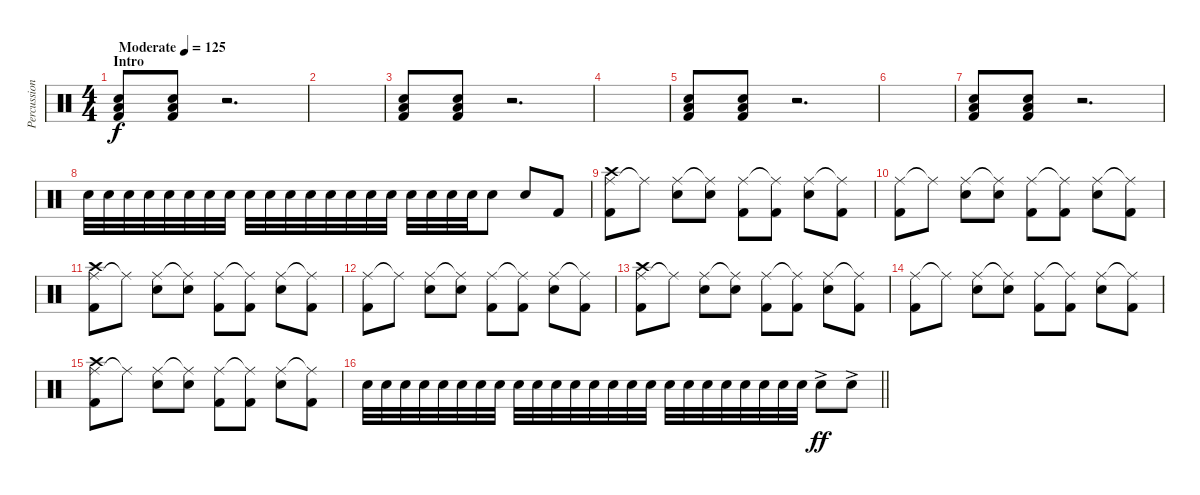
\track ("Percussion" "Percussion") {instrument percussion}
\staff {score}
\articulation defaults
\ts (4 4)
\section ("" "Intro")
\tempo (125 "Moderate")
\clef neutral
\ks c
("Snare (hit) 2" "Low Floor Tom (hit)" "Kick (hit) 2").8{dy f} ("Snare (hit) 2" "Low Floor Tom (hit)" "Kick (hit) 2").8 r.2{d} |
|
("Snare (hit) 2" "Low Floor Tom (hit)" "Kick (hit) 2").8 ("Snare (hit) 2" "Low Floor Tom (hit)" "Kick (hit) 2").8 r.2{d} |
|
("Snare (hit) 2" "Low Floor Tom (hit)" "Kick (hit) 2").8 ("Snare (hit) 2" "Low Floor Tom (hit)" "Kick (hit) 2").8 r.2{d} |
|
("Snare (hit) 2" "Low Floor Tom (hit)" "Kick (hit) 2").8 ("Snare (hit) 2" "Low Floor Tom (hit)" "Kick (hit) 2").8 r.2{d} |
"Snare (hit) 2".32{volume 6} "Snare (hit) 2".32 "Snare (hit) 2".32 "Snare (hit)".32 "Snare (hit)".32{volume 13} "Snare (hit) 2".32 "Snare (hit) 2".32 "Snare (hit) 2".32 "Snare (hit) 2".32 "Snare (hit) 2".32 "Snare (hit) 2".32 "Snare (hit) 2".32 "Snare (hit) 2".32 "Snare (hit) 2".32 "Snare (hit) 2".32 "Snare (hit) 2".32 "Snare (hit) 2".32 "Snare (hit) 2".32 "Snare (hit) 2".32 "Snare (hit) 2".32 "Snare (hit) 2".8 "Snare (hit) 2".8 "Kick (hit) 2".8 |
("Ride (middle)" "Crash high (hit)" "Kick (hit) 2").8 "Ride (middle)"{t}.8 ("Ride (middle)" "Snare (hit) 2").8 ("Ride (middle)"{t} "Snare (hit) 2").8 ("Ride (middle)" "Kick (hit) 2").8 ("Ride (middle)"{t} "Kick (hit) 2").8 ("Ride (middle)" "Snare (hit) 2").8 ("Ride (middle)"{t} "Kick (hit) 2").8 |
("Ride (middle)" "Kick (hit) 2").8 "Ride (middle)"{t}.8 ("Ride (middle)" "Snare (hit) 2").8 ("Ride (middle)"{t} "Snare (hit) 2").8 ("Ride (middle)" "Kick (hit) 2").8 ("Ride (middle)"{t} "Kick (hit) 2").8 ("Ride (middle)" "Snare (hit) 2").8 ("Ride (middle)"{t} "Kick (hit) 2").8 |
("Ride (middle)" "Crash high (hit)" "Kick (hit) 2").8 "Ride (middle)"{t}.8 ("Ride (middle)" "Snare (hit) 2").8 ("Ride (middle)"{t} "Snare (hit) 2").8 ("Ride (middle)" "Kick (hit) 2").8 ("Ride (middle)"{t} "Kick (hit) 2").8 ("Ride (middle)" "Snare (hit) 2").8 ("Ride (middle)"{t} "Kick (hit) 2").8 |
("Ride (middle)" "Kick (hit) 2").8 "Ride (middle)"{t}.8 ("Ride (middle)" "Snare (hit) 2").8 ("Ride (middle)"{t} "Snare (hit) 2").8 ("Ride (middle)" "Kick (hit) 2").8 ("Ride (middle)"{t} "Kick (hit) 2").8 ("Ride (middle)" "Snare (hit) 2").8 ("Ride (middle)"{t} "Kick (hit) 2").8 |
("Ride (middle)" "Crash high (hit)" "Kick (hit) 2").8 "Ride (middle)"{t}.8 ("Ride (middle)" "Snare (hit) 2").8 ("Ride (middle)"{t} "Snare (hit) 2").8 ("Ride (middle)" "Kick (hit) 2").8 ("Ride (middle)"{t} "Kick (hit) 2").8 ("Ride (middle)" "Snare (hit) 2").8 ("Ride (middle)"{t} "Kick (hit) 2").8 |
("Ride (middle)" "Kick (hit) 2").8 "Ride (middle)"{t}.8 ("Ride (middle)" "Snare (hit) 2").8 ("Ride (middle)"{t} "Snare (hit) 2").8 ("Ride (middle)" "Kick (hit) 2").8 ("Ride (middle)"{t} "Kick (hit) 2").8 ("Ride (middle)" "Snare (hit) 2").8 ("Ride (middle)"{t} "Kick (hit) 2").8 |
("Ride (middle)" "Crash high (hit)" "Kick (hit) 2").8 "Ride (middle)"{t}.8 ("Ride (middle)" "Snare (hit) 2").8 ("Ride (middle)"{t} "Snare (hit) 2").8 ("Ride (middle)" "Kick (hit) 2").8 ("Ride (middle)"{t} "Kick (hit) 2").8 ("Ride (middle)" "Snare (hit) 2").8 ("Ride (middle)"{t} "Kick (hit) 2").8 |
\barLineRight lightlight "Snare (hit) 2".32{volume 9} "Snare (hit) 2".32 "Snare (hit) 2".32 "Snare (hit)".32 "Snare (hit)".32{volume 13} "Snare (hit) 2".32 "Snare (hit) 2".32 "Snare (hit) 2".32 "Snare (hit) 2".32 "Snare (hit) 2".32 "Snare (hit) 2".32 "Snare (hit) 2".32 "Snare (hit) 2".32 "Snare (hit) 2".32 "Snare (hit) 2".32 "Snare (hit) 2".32 "Snare (hit) 2".32 "Snare (hit) 2".32 "Snare (hit) 2".32 "Snare (hit) 2".32 "Snare (hit) 2".32 "Snare (hit) 2".32 "Snare (hit) 2".32 "Snare (hit) 2".32 "Snare (hit) 2"{ac}.8{dy ff} "Snare (hit) 2"{ac}.8
